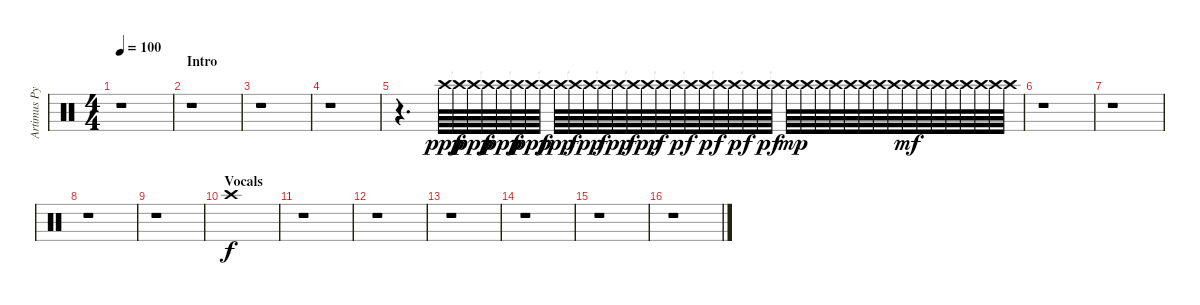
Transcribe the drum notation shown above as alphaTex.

\track ("Artimus Pyle " "Artimus Py") {instrument percussion}
\staff {score}
\articulation defaults
\ts (4 4)
\tempo 100
\clef neutral
\ks c
r.1{dy ppp} |
\section ("" "Intro")
r.1 |
r.1 |
r.1 |
r.4{d} "Crash high (hit)".64 "Crash high (hit)"{t}.64{dy f} "Crash high (hit)".64{dy ppp} "Crash high (hit)"{t}.64{dy f} "Crash high (hit)".64{dy ppp} "Crash high (hit)"{t}.64{dy f} "Crash high (hit)".64{dy ppp} "Crash high (hit)"{t}.64{dy f} "Crash high (hit)".64{dy pp} "Crash high (hit)"{t}.64{dy f} "Crash high (hit)".64{dy pp} "Crash high (hit)"{t}.64{dy f} "Crash high (hit)".64{dy pp} "Crash high (hit)"{t}.64{dy f} "Crash high (hit)".64{dy pp} "Crash high (hit)"{t}.64{dy f} "Crash high (hit)".64{dy p} "Crash high (hit)"{t}.64{dy f} "Crash high (hit)".64{dy p} "Crash high (hit)"{t}.64{dy f} "Crash high (hit)".64{dy p} "Crash high (hit)"{t}.64{dy f} "Crash high (hit)".64{dy p} "Crash high (hit)"{t}.64{dy f} "Crash high (hit)".64{dy mp} "Crash high (hit)".64 "Crash high (hit)".64 "Crash high (hit)".64 "Crash high (hit)".64 "Crash high (hit)".64 "Crash high (hit)".64 "Crash high (hit)".64 "Crash high (hit)".64{dy mf} "Crash high (hit)".64 "Crash high (hit)".64 "Crash high (hit)".64 "Crash high (hit)".64 "Crash high (hit)".64 "Crash high (hit)".64 "Crash high (hit)".64 |
r.1 |
r.1 |
r.1 |
r.1 |
\section ("" "Vocals")
"Crash high (hit)".1{dy f} |
r.1 |
r.1 |
r.1 |
r.1 |
r.1 |
r.1
